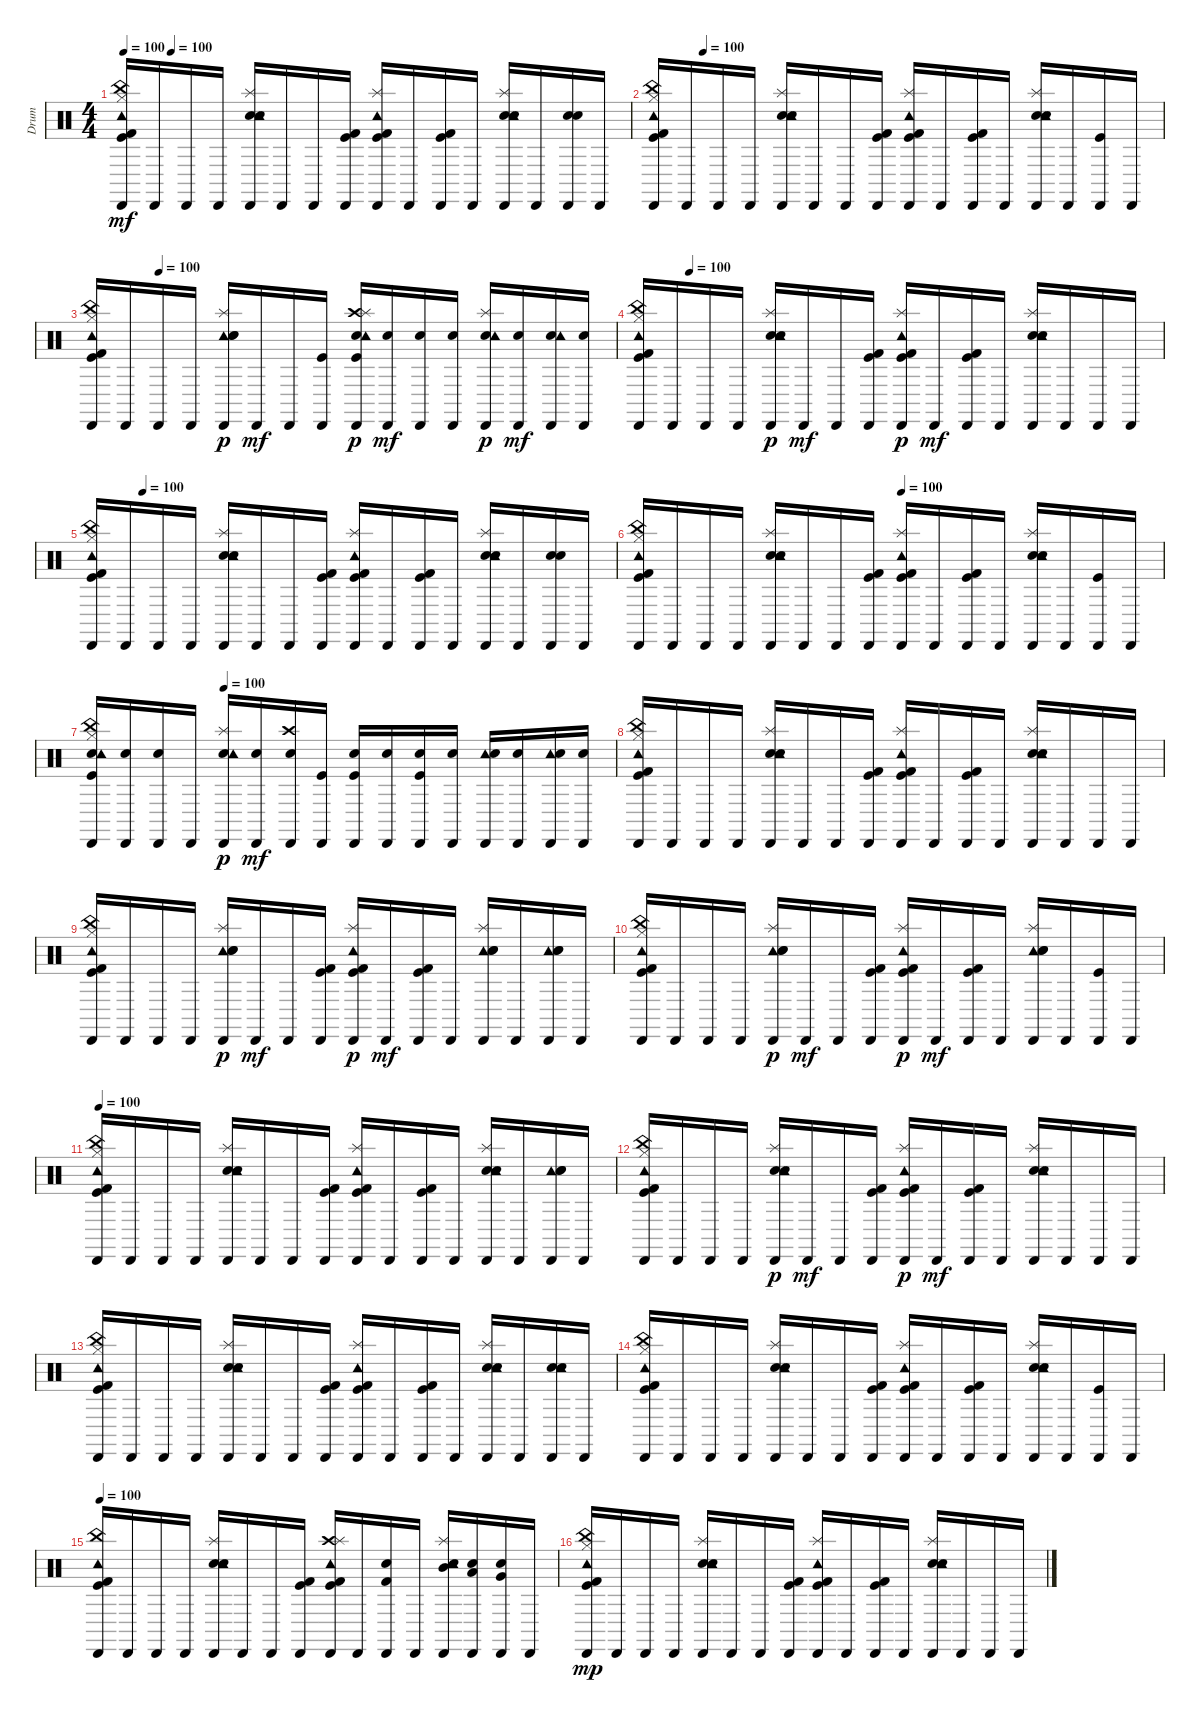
\track ("Drum" "Drum") {instrument percussion}
\staff {score}
\articulation defaults
\ts (4 4)
\tempo 100
\tempo (100 0.09375)
\clef neutral
\ks c
("Kick (hit) 2" "Hi-Hat (closed)" "China (hit)" "Kick (hit)" "Cabasa (hit)" "Tambourine (hit)").16{dy mf} "Cabasa (hit)".16 "Cabasa (hit)".16 "Cabasa (hit)".16 ("Electric Snare (hit)" "Splash (hit)" "Snare (hit) 2" "Cabasa (hit)" "Tambourine (hit)").16 "Cabasa (hit)".16 "Cabasa (hit)".16 ("Kick (hit) 2" "Kick (hit)" "Cabasa (hit)").16 ("Kick (hit) 2" "Splash (hit)" "Kick (hit)" "Cabasa (hit)" "Tambourine (hit)").16 "Cabasa (hit)".16 ("Kick (hit) 2" "Kick (hit)" "Cabasa (hit)").16 "Cabasa (hit)".16 ("Electric Snare (hit)" "Snare (hit) 2" "Splash (hit)" "Cabasa (hit)" "Tambourine (hit)").16 "Cabasa (hit)".16 ("Electric Snare (hit)" "Snare (hit) 2" "Cabasa (hit)").16 "Cabasa (hit)".16 |
\tempo (100 0.09375)
("Kick (hit) 2" "Hi-Hat (closed)" "China (hit)" "Kick (hit)" "Cabasa (hit)" "Tambourine (hit)").16 "Cabasa (hit)".16 "Cabasa (hit)".16 "Cabasa (hit)".16 ("Electric Snare (hit)" "Splash (hit)" "Snare (hit) 2" "Cabasa (hit)" "Tambourine (hit)").16 "Cabasa (hit)".16 "Cabasa (hit)".16 ("Kick (hit) 2" "Kick (hit)" "Cabasa (hit)").16 ("Kick (hit) 2" "Splash (hit)" "Kick (hit)" "Cabasa (hit)" "Tambourine (hit)").16 "Cabasa (hit)".16 ("Kick (hit) 2" "Kick (hit)" "Cabasa (hit)").16 "Cabasa (hit)".16 ("Electric Snare (hit)" "Snare (hit) 2" "Splash (hit)" "Cabasa (hit)" "Tambourine (hit)").16 "Cabasa (hit)".16 ("Kick (hit)" "Cabasa (hit)").16 "Cabasa (hit)".16 |
\tempo (100 0.125)
("Tambourine (hit)" "Cabasa (hit)" "Kick (hit)" "China (hit)" "Hi-Hat (closed)" "Kick (hit) 2").16 "Cabasa (hit)".16 "Cabasa (hit)".16 "Cabasa (hit)".16 ("Tambourine (hit)" "Cabasa (hit)" "Snare (hit) 2" "Splash (hit)" "Electric Snare (hit)").16{dy p} "Cabasa (hit)".16{dy mf} "Cabasa (hit)".16 ("Kick (hit)" "Cabasa (hit)").16 ("Crash high (hit)" "Kick (hit)" "Snare (hit) 2" "Tambourine (hit)" "Cabasa (hit)" "Splash (hit)").16{dy p} ("Snare (hit) 2" "Cabasa (hit)").16{dy mf} ("Snare (hit) 2" "Cabasa (hit)").16 ("Snare (hit) 2" "Cabasa (hit)").16 ("Snare (hit) 2" "Tambourine (hit)" "Cabasa (hit)" "Splash (hit)").16{dy p} ("Snare (hit) 2" "Cabasa (hit)").16{dy mf} ("Snare (hit) 2" "Tambourine (hit)" "Cabasa (hit)").16 ("Snare (hit) 2" "Cabasa (hit)").16 |
\tempo (100 0.09375)
("Tambourine (hit)" "Cabasa (hit)" "Kick (hit)" "China (hit)" "Hi-Hat (closed)" "Kick (hit) 2").16 "Cabasa (hit)".16 "Cabasa (hit)".16 "Cabasa (hit)".16 ("Electric Snare (hit)" "Tambourine (hit)" "Cabasa (hit)" "Snare (hit) 2" "Splash (hit)").16{dy p} "Cabasa (hit)".16{dy mf} "Cabasa (hit)".16 ("Cabasa (hit)" "Kick (hit)" "Kick (hit) 2").16 ("Tambourine (hit)" "Cabasa (hit)" "Kick (hit)" "Splash (hit)" "Kick (hit) 2").16{dy p} "Cabasa (hit)".16{dy mf} ("Cabasa (hit)" "Kick (hit)" "Kick (hit) 2").16 "Cabasa (hit)".16 ("Electric Snare (hit)" "Tambourine (hit)" "Cabasa (hit)" "Splash (hit)" "Snare (hit) 2").16 "Cabasa (hit)".16 "Cabasa (hit)".16 "Cabasa (hit)".16 |
\tempo (100 0.09375)
("Kick (hit) 2" "Hi-Hat (closed)" "China (hit)" "Kick (hit)" "Cabasa (hit)" "Tambourine (hit)").16 "Cabasa (hit)".16 "Cabasa (hit)".16 "Cabasa (hit)".16 ("Electric Snare (hit)" "Splash (hit)" "Snare (hit) 2" "Cabasa (hit)" "Tambourine (hit)").16 "Cabasa (hit)".16 "Cabasa (hit)".16 ("Kick (hit) 2" "Kick (hit)" "Cabasa (hit)").16 ("Kick (hit) 2" "Splash (hit)" "Kick (hit)" "Cabasa (hit)" "Tambourine (hit)").16 "Cabasa (hit)".16 ("Kick (hit) 2" "Kick (hit)" "Cabasa (hit)").16 "Cabasa (hit)".16 ("Electric Snare (hit)" "Snare (hit) 2" "Splash (hit)" "Cabasa (hit)" "Tambourine (hit)").16 "Cabasa (hit)".16 ("Electric Snare (hit)" "Snare (hit) 2" "Cabasa (hit)").16 "Cabasa (hit)".16 |
\tempo (100 0.5)
("Kick (hit) 2" "Hi-Hat (closed)" "China (hit)" "Kick (hit)" "Cabasa (hit)" "Tambourine (hit)").16 "Cabasa (hit)".16 "Cabasa (hit)".16 "Cabasa (hit)".16 ("Electric Snare (hit)" "Splash (hit)" "Snare (hit) 2" "Cabasa (hit)" "Tambourine (hit)").16 "Cabasa (hit)".16 "Cabasa (hit)".16 ("Kick (hit) 2" "Kick (hit)" "Cabasa (hit)").16 ("Kick (hit) 2" "Splash (hit)" "Kick (hit)" "Cabasa (hit)" "Tambourine (hit)").16 "Cabasa (hit)".16 ("Kick (hit) 2" "Kick (hit)" "Cabasa (hit)").16 "Cabasa (hit)".16 ("Electric Snare (hit)" "Snare (hit) 2" "Splash (hit)" "Cabasa (hit)" "Tambourine (hit)").16 "Cabasa (hit)".16 ("Kick (hit)" "Cabasa (hit)").16 "Cabasa (hit)".16 |
\tempo (100 0.25)
("Snare (hit) 2" "Kick (hit)" "Tambourine (hit)" "Cabasa (hit)" "China (hit)" "Hi-Hat (closed)").16 ("Snare (hit) 2" "Cabasa (hit)").16 ("Snare (hit) 2" "Cabasa (hit)").16 "Cabasa (hit)".16 ("Snare (hit) 2" "Tambourine (hit)" "Cabasa (hit)" "Splash (hit)").16{dy p} ("Snare (hit) 2" "Cabasa (hit)").16{dy mf} ("Crash high (hit)" "Snare (hit) 2" "Cabasa (hit)").16 ("Kick (hit)" "Cabasa (hit)").16 ("Snare (hit) 2" "Kick (hit)" "Cabasa (hit)").16 ("Snare (hit) 2" "Cabasa (hit)").16 ("Kick (hit)" "Snare (hit) 2" "Cabasa (hit)").16 ("Snare (hit) 2" "Cabasa (hit)").16 ("Tambourine (hit)" "Snare (hit) 2" "Cabasa (hit)").16 ("Snare (hit) 2" "Cabasa (hit)").16 ("Tambourine (hit)" "Snare (hit) 2" "Cabasa (hit)").16 ("Snare (hit) 2" "Cabasa (hit)").16 |
("Kick (hit) 2" "Hi-Hat (closed)" "China (hit)" "Kick (hit)" "Cabasa (hit)" "Tambourine (hit)").16 "Cabasa (hit)".16 "Cabasa (hit)".16 "Cabasa (hit)".16 ("Splash (hit)" "Snare (hit) 2" "Cabasa (hit)" "Tambourine (hit)" "Electric Snare (hit)").16 "Cabasa (hit)".16 "Cabasa (hit)".16 ("Kick (hit) 2" "Kick (hit)" "Cabasa (hit)").16 ("Kick (hit) 2" "Splash (hit)" "Kick (hit)" "Cabasa (hit)" "Tambourine (hit)").16 "Cabasa (hit)".16 ("Kick (hit) 2" "Kick (hit)" "Cabasa (hit)").16 "Cabasa (hit)".16 ("Snare (hit) 2" "Splash (hit)" "Cabasa (hit)" "Tambourine (hit)" "Electric Snare (hit)").16 "Cabasa (hit)".16 "Cabasa (hit)".16 "Cabasa (hit)".16 |
("Tambourine (hit)" "Cabasa (hit)" "Kick (hit)" "China (hit)" "Hi-Hat (closed)" "Kick (hit) 2").16 "Cabasa (hit)".16 "Cabasa (hit)".16 "Cabasa (hit)".16 ("Tambourine (hit)" "Cabasa (hit)" "Snare (hit) 2" "Splash (hit)" "Electric Snare (hit)").16{dy p} "Cabasa (hit)".16{dy mf} "Cabasa (hit)".16 ("Cabasa (hit)" "Kick (hit)" "Kick (hit) 2").16 ("Tambourine (hit)" "Cabasa (hit)" "Kick (hit)" "Splash (hit)" "Kick (hit) 2").16{dy p} "Cabasa (hit)".16{dy mf} ("Cabasa (hit)" "Kick (hit)" "Kick (hit) 2").16 "Cabasa (hit)".16 ("Tambourine (hit)" "Cabasa (hit)" "Splash (hit)" "Snare (hit) 2" "Electric Snare (hit)").16 "Cabasa (hit)".16 ("Tambourine (hit)" "Cabasa (hit)" "Snare (hit) 2" "Electric Snare (hit)").16 "Cabasa (hit)".16 |
("Tambourine (hit)" "Cabasa (hit)" "Kick (hit)" "China (hit)" "Hi-Hat (closed)" "Kick (hit) 2").16 "Cabasa (hit)".16 "Cabasa (hit)".16 "Cabasa (hit)".16 ("Tambourine (hit)" "Cabasa (hit)" "Snare (hit) 2" "Splash (hit)" "Electric Snare (hit)").16{dy p} "Cabasa (hit)".16{dy mf} "Cabasa (hit)".16 ("Cabasa (hit)" "Kick (hit)" "Kick (hit) 2").16 ("Tambourine (hit)" "Cabasa (hit)" "Kick (hit)" "Splash (hit)" "Kick (hit) 2").16{dy p} "Cabasa (hit)".16{dy mf} ("Cabasa (hit)" "Kick (hit)" "Kick (hit) 2").16 "Cabasa (hit)".16 ("Tambourine (hit)" "Cabasa (hit)" "Splash (hit)" "Snare (hit) 2" "Electric Snare (hit)").16 "Cabasa (hit)".16 ("Cabasa (hit)" "Kick (hit)").16 "Cabasa (hit)".16 |
\tempo 100
("Kick (hit) 2" "Hi-Hat (closed)" "China (hit)" "Kick (hit)" "Cabasa (hit)" "Tambourine (hit)").16 "Cabasa (hit)".16 "Cabasa (hit)".16 "Cabasa (hit)".16 ("Electric Snare (hit)" "Splash (hit)" "Snare (hit) 2" "Cabasa (hit)" "Tambourine (hit)").16 "Cabasa (hit)".16 "Cabasa (hit)".16 ("Kick (hit) 2" "Kick (hit)" "Cabasa (hit)").16 ("Kick (hit) 2" "Splash (hit)" "Kick (hit)" "Cabasa (hit)" "Tambourine (hit)").16 "Cabasa (hit)".16 ("Kick (hit) 2" "Kick (hit)" "Cabasa (hit)").16 "Cabasa (hit)".16 ("Electric Snare (hit)" "Snare (hit) 2" "Splash (hit)" "Cabasa (hit)" "Tambourine (hit)").16 "Cabasa (hit)".16 ("Tambourine (hit)" "Electric Snare (hit)" "Snare (hit) 2" "Cabasa (hit)").16 "Cabasa (hit)".16 |
("Tambourine (hit)" "Cabasa (hit)" "Kick (hit)" "China (hit)" "Hi-Hat (closed)" "Kick (hit) 2").16 "Cabasa (hit)".16 "Cabasa (hit)".16 "Cabasa (hit)".16 ("Electric Snare (hit)" "Tambourine (hit)" "Cabasa (hit)" "Snare (hit) 2" "Splash (hit)").16{dy p} "Cabasa (hit)".16{dy mf} "Cabasa (hit)".16 ("Cabasa (hit)" "Kick (hit)" "Kick (hit) 2").16 ("Tambourine (hit)" "Cabasa (hit)" "Kick (hit)" "Splash (hit)" "Kick (hit) 2").16{dy p} "Cabasa (hit)".16{dy mf} ("Cabasa (hit)" "Kick (hit)" "Kick (hit) 2").16 "Cabasa (hit)".16 ("Electric Snare (hit)" "Tambourine (hit)" "Cabasa (hit)" "Splash (hit)" "Snare (hit) 2").16 "Cabasa (hit)".16 "Cabasa (hit)".16 "Cabasa (hit)".16 |
("Kick (hit) 2" "Hi-Hat (closed)" "China (hit)" "Kick (hit)" "Cabasa (hit)" "Tambourine (hit)").16 "Cabasa (hit)".16 "Cabasa (hit)".16 "Cabasa (hit)".16 ("Electric Snare (hit)" "Splash (hit)" "Snare (hit) 2" "Cabasa (hit)" "Tambourine (hit)").16 "Cabasa (hit)".16 "Cabasa (hit)".16 ("Kick (hit) 2" "Kick (hit)" "Cabasa (hit)").16 ("Kick (hit) 2" "Splash (hit)" "Kick (hit)" "Cabasa (hit)" "Tambourine (hit)").16 "Cabasa (hit)".16 ("Kick (hit) 2" "Kick (hit)" "Cabasa (hit)").16 "Cabasa (hit)".16 ("Electric Snare (hit)" "Snare (hit) 2" "Splash (hit)" "Cabasa (hit)" "Tambourine (hit)").16 "Cabasa (hit)".16 ("Electric Snare (hit)" "Snare (hit) 2" "Cabasa (hit)" "Tambourine (hit)").16 "Cabasa (hit)".16 |
("Kick (hit) 2" "Hi-Hat (closed)" "China (hit)" "Kick (hit)" "Cabasa (hit)" "Tambourine (hit)").16 "Cabasa (hit)".16 "Cabasa (hit)".16 "Cabasa (hit)".16 ("Electric Snare (hit)" "Splash (hit)" "Snare (hit) 2" "Cabasa (hit)" "Tambourine (hit)").16 "Cabasa (hit)".16 "Cabasa (hit)".16 ("Kick (hit) 2" "Kick (hit)" "Cabasa (hit)").16 ("Kick (hit) 2" "Splash (hit)" "Kick (hit)" "Cabasa (hit)" "Tambourine (hit)").16 "Cabasa (hit)".16 ("Kick (hit) 2" "Kick (hit)" "Cabasa (hit)").16 "Cabasa (hit)".16 ("Electric Snare (hit)" "Snare (hit) 2" "Splash (hit)" "Cabasa (hit)" "Tambourine (hit)").16 "Cabasa (hit)".16 ("Kick (hit)" "Cabasa (hit)").16 "Cabasa (hit)".16 |
\tempo 100
("China (hit)" "Kick (hit)" "Cabasa (hit)" "Kick (hit) 2" "Tambourine (hit)").16 "Cabasa (hit)".16 "Cabasa (hit)".16 "Cabasa (hit)".16 ("Splash (hit)" "Snare (hit) 2" "Cabasa (hit)" "Tambourine (hit)" "Electric Snare (hit)").16 "Cabasa (hit)".16 "Cabasa (hit)".16 ("Kick (hit)" "Cabasa (hit)" "Kick (hit) 2").16 ("Crash high (hit)" "Splash (hit)" "Kick (hit)" "Cabasa (hit)" "Kick (hit) 2" "Tambourine (hit)").16 "Cabasa (hit)".16 ("Cabasa (hit)" "Snare (hit) 2" "Kick (hit) 2").16 "Cabasa (hit)".16 ("Snare (hit) 2" "Mid Tom (hit)" "Splash (hit)" "Cabasa (hit)" "Tambourine (hit)").16 ("Low Tom (hit)" "Cabasa (hit)" "Snare (hit) 2").16 ("Very Low Tom (hit)" "Snare (hit) 2" "Cabasa (hit)").16 "Cabasa (hit)".16 |
("Tambourine (hit)" "Cabasa (hit)" "Kick (hit)" "China (hit)" "Hi-Hat (closed)" "Kick (hit) 2").16{dy mp} "Cabasa (hit)".16 "Cabasa (hit)".16 "Cabasa (hit)".16 ("Electric Snare (hit)" "Tambourine (hit)" "Cabasa (hit)" "Snare (hit) 2" "Splash (hit)").16 "Cabasa (hit)".16 "Cabasa (hit)".16 ("Cabasa (hit)" "Kick (hit)" "Kick (hit) 2").16 ("Tambourine (hit)" "Cabasa (hit)" "Kick (hit)" "Splash (hit)" "Kick (hit) 2").16 "Cabasa (hit)".16 ("Cabasa (hit)" "Kick (hit)" "Kick (hit) 2").16 "Cabasa (hit)".16 ("Electric Snare (hit)" "Tambourine (hit)" "Cabasa (hit)" "Splash (hit)" "Snare (hit) 2").16 "Cabasa (hit)".16 "Cabasa (hit)".16 "Cabasa (hit)".16
